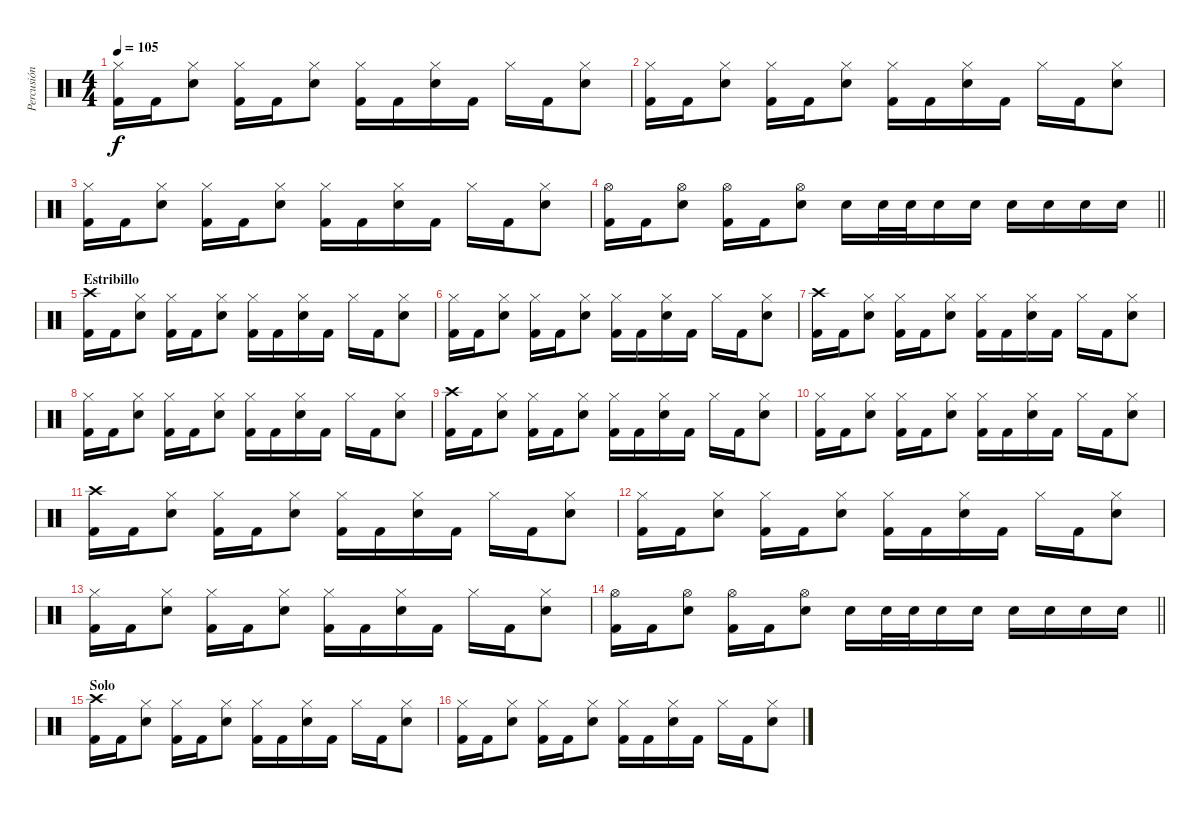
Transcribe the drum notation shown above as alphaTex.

\track ("Percusión" "Percusión") {instrument percussion}
\staff {score}
\articulation defaults
\ts (4 4)
\tempo 105
\clef neutral
\ks c
("Hi-Hat (closed)" "Kick (hit) 2").16{dy f} "Kick (hit) 2".16 ("Hi-Hat (closed)" "Electric Snare (hit)").8 ("Hi-Hat (closed)" "Kick (hit) 2").16 "Kick (hit) 2".16 ("Hi-Hat (closed)" "Electric Snare (hit)").8 ("Hi-Hat (closed)" "Kick (hit) 2").16 "Kick (hit) 2".16 ("Hi-Hat (closed)" "Electric Snare (hit)").16 "Kick (hit) 2".16 "Hi-Hat (closed)".16 "Kick (hit) 2".16 ("Hi-Hat (closed)" "Electric Snare (hit)").8 |
("Hi-Hat (closed)" "Kick (hit) 2").16 "Kick (hit) 2".16 ("Hi-Hat (closed)" "Electric Snare (hit)").8 ("Hi-Hat (closed)" "Kick (hit) 2").16 "Kick (hit) 2".16 ("Hi-Hat (closed)" "Electric Snare (hit)").8 ("Hi-Hat (closed)" "Kick (hit) 2").16 "Kick (hit) 2".16 ("Hi-Hat (closed)" "Electric Snare (hit)").16 "Kick (hit) 2".16 "Hi-Hat (closed)".16 "Kick (hit) 2".16 ("Hi-Hat (closed)" "Electric Snare (hit)").8 |
("Hi-Hat (closed)" "Kick (hit) 2").16 "Kick (hit) 2".16 ("Hi-Hat (closed)" "Electric Snare (hit)").8 ("Hi-Hat (closed)" "Kick (hit) 2").16 "Kick (hit) 2".16 ("Hi-Hat (closed)" "Electric Snare (hit)").8 ("Hi-Hat (closed)" "Kick (hit) 2").16 "Kick (hit) 2".16 ("Hi-Hat (closed)" "Electric Snare (hit)").16 "Kick (hit) 2".16 "Hi-Hat (closed)".16 "Kick (hit) 2".16 ("Hi-Hat (closed)" "Electric Snare (hit)").8 |
\barLineRight lightlight
("Hi-Hat (open)" "Kick (hit) 2").16 "Kick (hit) 2".16 ("Hi-Hat (open)" "Electric Snare (hit)").8 ("Hi-Hat (open)" "Kick (hit) 2").16 "Kick (hit) 2".16 ("Hi-Hat (open)" "Electric Snare (hit)").8 "Electric Snare (hit)".16 "Electric Snare (hit)".32 "Electric Snare (hit)".32 "Electric Snare (hit)".16 "Electric Snare (hit)".16 "Electric Snare (hit)".16 "Electric Snare (hit)".16 "Electric Snare (hit)".16 "Electric Snare (hit)".16 |
\section ("" "Estribillo")
("Crash high (hit)" "Kick (hit) 2").16 "Kick (hit) 2".16 ("Hi-Hat (closed)" "Electric Snare (hit)").8 ("Hi-Hat (closed)" "Kick (hit) 2").16 "Kick (hit) 2".16 ("Hi-Hat (closed)" "Electric Snare (hit)").8 ("Hi-Hat (closed)" "Kick (hit) 2").16 "Kick (hit) 2".16 ("Hi-Hat (closed)" "Electric Snare (hit)").16 "Kick (hit) 2".16 "Hi-Hat (closed)".16 "Kick (hit) 2".16 ("Hi-Hat (closed)" "Electric Snare (hit)").8 |
("Hi-Hat (closed)" "Kick (hit) 2").16 "Kick (hit) 2".16 ("Hi-Hat (closed)" "Electric Snare (hit)").8 ("Hi-Hat (closed)" "Kick (hit) 2").16 "Kick (hit) 2".16 ("Hi-Hat (closed)" "Electric Snare (hit)").8 ("Hi-Hat (closed)" "Kick (hit) 2").16 "Kick (hit) 2".16 ("Hi-Hat (closed)" "Electric Snare (hit)").16 "Kick (hit) 2".16 "Hi-Hat (closed)".16 "Kick (hit) 2".16 ("Hi-Hat (closed)" "Electric Snare (hit)").8 |
("Crash high (hit)" "Kick (hit) 2").16 "Kick (hit) 2".16 ("Hi-Hat (closed)" "Electric Snare (hit)").8 ("Hi-Hat (closed)" "Kick (hit) 2").16 "Kick (hit) 2".16 ("Hi-Hat (closed)" "Electric Snare (hit)").8 ("Hi-Hat (closed)" "Kick (hit) 2").16 "Kick (hit) 2".16 ("Hi-Hat (closed)" "Electric Snare (hit)").16 "Kick (hit) 2".16 "Hi-Hat (closed)".16 "Kick (hit) 2".16 ("Hi-Hat (closed)" "Electric Snare (hit)").8 |
("Hi-Hat (closed)" "Kick (hit) 2").16 "Kick (hit) 2".16 ("Hi-Hat (closed)" "Electric Snare (hit)").8 ("Hi-Hat (closed)" "Kick (hit) 2").16 "Kick (hit) 2".16 ("Hi-Hat (closed)" "Electric Snare (hit)").8 ("Hi-Hat (closed)" "Kick (hit) 2").16 "Kick (hit) 2".16 ("Hi-Hat (closed)" "Electric Snare (hit)").16 "Kick (hit) 2".16 "Hi-Hat (closed)".16 "Kick (hit) 2".16 ("Hi-Hat (closed)" "Electric Snare (hit)").8 |
("Crash high (hit)" "Kick (hit) 2").16 "Kick (hit) 2".16 ("Hi-Hat (closed)" "Electric Snare (hit)").8 ("Hi-Hat (closed)" "Kick (hit) 2").16 "Kick (hit) 2".16 ("Hi-Hat (closed)" "Electric Snare (hit)").8 ("Hi-Hat (closed)" "Kick (hit) 2").16 "Kick (hit) 2".16 ("Hi-Hat (closed)" "Electric Snare (hit)").16 "Kick (hit) 2".16 "Hi-Hat (closed)".16 "Kick (hit) 2".16 ("Hi-Hat (closed)" "Electric Snare (hit)").8 |
("Hi-Hat (closed)" "Kick (hit) 2").16 "Kick (hit) 2".16 ("Hi-Hat (closed)" "Electric Snare (hit)").8 ("Hi-Hat (closed)" "Kick (hit) 2").16 "Kick (hit) 2".16 ("Hi-Hat (closed)" "Electric Snare (hit)").8 ("Hi-Hat (closed)" "Kick (hit) 2").16 "Kick (hit) 2".16 ("Hi-Hat (closed)" "Electric Snare (hit)").16 "Kick (hit) 2".16 "Hi-Hat (closed)".16 "Kick (hit) 2".16 ("Hi-Hat (closed)" "Electric Snare (hit)").8 |
("Crash high (hit)" "Kick (hit) 2").16 "Kick (hit) 2".16 ("Hi-Hat (closed)" "Electric Snare (hit)").8 ("Hi-Hat (closed)" "Kick (hit) 2").16 "Kick (hit) 2".16 ("Hi-Hat (closed)" "Electric Snare (hit)").8 ("Hi-Hat (closed)" "Kick (hit) 2").16 "Kick (hit) 2".16 ("Hi-Hat (closed)" "Electric Snare (hit)").16 "Kick (hit) 2".16 "Hi-Hat (closed)".16 "Kick (hit) 2".16 ("Hi-Hat (closed)" "Electric Snare (hit)").8 |
("Hi-Hat (closed)" "Kick (hit) 2").16 "Kick (hit) 2".16 ("Hi-Hat (closed)" "Electric Snare (hit)").8 ("Hi-Hat (closed)" "Kick (hit) 2").16 "Kick (hit) 2".16 ("Hi-Hat (closed)" "Electric Snare (hit)").8 ("Hi-Hat (closed)" "Kick (hit) 2").16 "Kick (hit) 2".16 ("Hi-Hat (closed)" "Electric Snare (hit)").16 "Kick (hit) 2".16 "Hi-Hat (closed)".16 "Kick (hit) 2".16 ("Hi-Hat (closed)" "Electric Snare (hit)").8 |
("Hi-Hat (closed)" "Kick (hit) 2").16 "Kick (hit) 2".16 ("Hi-Hat (closed)" "Electric Snare (hit)").8 ("Hi-Hat (closed)" "Kick (hit) 2").16 "Kick (hit) 2".16 ("Hi-Hat (closed)" "Electric Snare (hit)").8 ("Hi-Hat (closed)" "Kick (hit) 2").16 "Kick (hit) 2".16 ("Hi-Hat (closed)" "Electric Snare (hit)").16 "Kick (hit) 2".16 "Hi-Hat (closed)".16 "Kick (hit) 2".16 ("Hi-Hat (closed)" "Electric Snare (hit)").8 |
\barLineRight lightlight
("Hi-Hat (open)" "Kick (hit) 2").16 "Kick (hit) 2".16 ("Hi-Hat (open)" "Electric Snare (hit)").8 ("Hi-Hat (open)" "Kick (hit) 2").16 "Kick (hit) 2".16 ("Hi-Hat (open)" "Electric Snare (hit)").8 "Electric Snare (hit)".16 "Electric Snare (hit)".32 "Electric Snare (hit)".32 "Electric Snare (hit)".16 "Electric Snare (hit)".16 "Electric Snare (hit)".16 "Electric Snare (hit)".16 "Electric Snare (hit)".16 "Electric Snare (hit)".16 |
\section ("" "Solo")
("Crash high (hit)" "Kick (hit) 2").16 "Kick (hit) 2".16 ("Hi-Hat (closed)" "Electric Snare (hit)").8 ("Hi-Hat (closed)" "Kick (hit) 2").16 "Kick (hit) 2".16 ("Hi-Hat (closed)" "Electric Snare (hit)").8 ("Hi-Hat (closed)" "Kick (hit) 2").16 "Kick (hit) 2".16 ("Hi-Hat (closed)" "Electric Snare (hit)").16 "Kick (hit) 2".16 "Hi-Hat (closed)".16 "Kick (hit) 2".16 ("Hi-Hat (closed)" "Electric Snare (hit)").8 |
("Hi-Hat (closed)" "Kick (hit) 2").16 "Kick (hit) 2".16 ("Hi-Hat (closed)" "Electric Snare (hit)").8 ("Hi-Hat (closed)" "Kick (hit) 2").16 "Kick (hit) 2".16 ("Hi-Hat (closed)" "Electric Snare (hit)").8 ("Hi-Hat (closed)" "Kick (hit) 2").16 "Kick (hit) 2".16 ("Hi-Hat (closed)" "Electric Snare (hit)").16 "Kick (hit) 2".16 "Hi-Hat (closed)".16 "Kick (hit) 2".16 ("Hi-Hat (closed)" "Electric Snare (hit)").8
